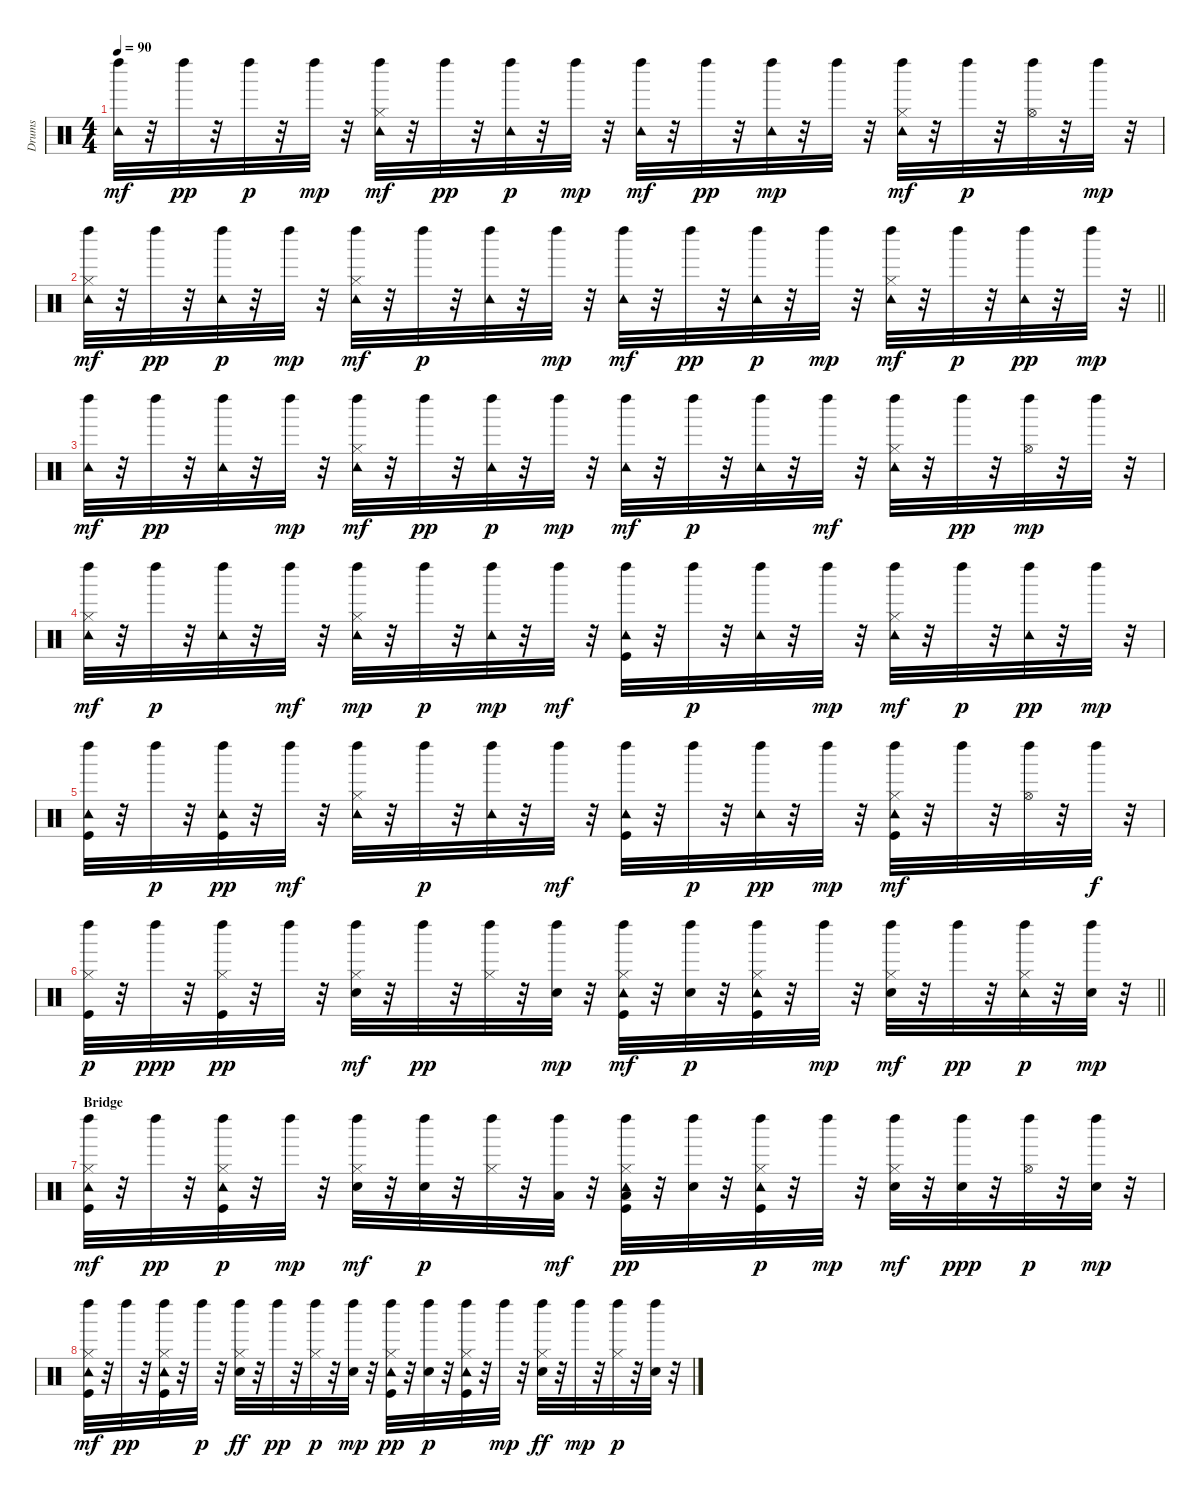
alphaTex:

\track ("Drums" "Drums") {instrument percussion}
\staff {score}
\articulation defaults
\ts (4 4)
\tempo 90
\clef neutral
\ks c
("Tambourine (hit)" "Left Maraca (hit)").32{dy mf} r.32 "Left Maraca (hit)".32{dy pp} r.32 "Left Maraca (hit)".32{dy p} r.32 "Left Maraca (hit)".32{dy mp} r.32 ("Hi-Hat (closed)" "Tambourine (hit)" "Left Maraca (hit)").32{dy mf} r.32 "Left Maraca (hit)".32{dy pp} r.32 ("Tambourine (hit)" "Left Maraca (hit)").32{dy p} r.32 "Left Maraca (hit)".32{dy mp} r.32 ("Tambourine (hit)" "Left Maraca (hit)").32{dy mf} r.32 "Left Maraca (hit)".32{dy pp} r.32 ("Tambourine (hit)" "Left Maraca (hit)").32{dy mp} r.32 "Left Maraca (hit)".32 r.32 ("Hi-Hat (closed)" "Tambourine (hit)" "Left Maraca (hit)").32{dy mf} r.32 "Left Maraca (hit)".32{dy p} r.32 ("Hi-Hat (open)" "Left Maraca (hit)").32 r.32 "Left Maraca (hit)".32{dy mp} r.32 |
\barLineRight lightlight
("Hi-Hat (closed)" "Tambourine (hit)" "Left Maraca (hit)").32{dy mf} r.32 "Left Maraca (hit)".32{dy pp} r.32 ("Tambourine (hit)" "Left Maraca (hit)").32{dy p} r.32 "Left Maraca (hit)".32{dy mp} r.32 ("Hi-Hat (closed)" "Tambourine (hit)" "Left Maraca (hit)").32{dy mf} r.32 "Left Maraca (hit)".32{dy p} r.32 ("Tambourine (hit)" "Left Maraca (hit)").32 r.32 "Left Maraca (hit)".32{dy mp} r.32 ("Tambourine (hit)" "Left Maraca (hit)").32{dy mf} r.32 "Left Maraca (hit)".32{dy pp} r.32 ("Tambourine (hit)" "Left Maraca (hit)").32{dy p} r.32 "Left Maraca (hit)".32{dy mp} r.32 ("Hi-Hat (closed)" "Tambourine (hit)" "Left Maraca (hit)").32{dy mf} r.32 "Left Maraca (hit)".32{dy p} r.32 ("Tambourine (hit)" "Left Maraca (hit)").32{dy pp} r.32 "Left Maraca (hit)".32{dy mp} r.32 |
("Tambourine (hit)" "Left Maraca (hit)").32{dy mf} r.32 "Left Maraca (hit)".32{dy pp} r.32 ("Tambourine (hit)" "Left Maraca (hit)").32 r.32 "Left Maraca (hit)".32{dy mp} r.32 ("Hi-Hat (closed)" "Tambourine (hit)" "Left Maraca (hit)").32{dy mf} r.32 "Left Maraca (hit)".32{dy pp} r.32 ("Tambourine (hit)" "Left Maraca (hit)").32{dy p} r.32 "Left Maraca (hit)".32{dy mp} r.32 ("Tambourine (hit)" "Left Maraca (hit)").32{dy mf} r.32 "Left Maraca (hit)".32{dy p} r.32 ("Tambourine (hit)" "Left Maraca (hit)").32 r.32 "Left Maraca (hit)".32{dy mf} r.32 ("Hi-Hat (closed)" "Tambourine (hit)" "Left Maraca (hit)").32 r.32 "Left Maraca (hit)".32{dy pp} r.32 ("Hi-Hat (open)" "Left Maraca (hit)").32{dy mp} r.32 "Left Maraca (hit)".32 r.32 |
("Hi-Hat (closed)" "Tambourine (hit)" "Left Maraca (hit)").32{dy mf} r.32 "Left Maraca (hit)".32{dy p} r.32 ("Tambourine (hit)" "Left Maraca (hit)").32 r.32 "Left Maraca (hit)".32{dy mf} r.32 ("Hi-Hat (closed)" "Tambourine (hit)" "Left Maraca (hit)").32{dy mp} r.32 "Left Maraca (hit)".32{dy p} r.32 ("Tambourine (hit)" "Left Maraca (hit)").32{dy mp} r.32 "Left Maraca (hit)".32{dy mf} r.32 ("Kick (hit)" "Tambourine (hit)" "Left Maraca (hit)").32 r.32 "Left Maraca (hit)".32{dy p} r.32 ("Tambourine (hit)" "Left Maraca (hit)").32 r.32 "Left Maraca (hit)".32{dy mp} r.32 ("Hi-Hat (closed)" "Tambourine (hit)" "Left Maraca (hit)").32{dy mf} r.32 "Left Maraca (hit)".32{dy p} r.32 ("Tambourine (hit)" "Left Maraca (hit)").32{dy pp} r.32 "Left Maraca (hit)".32{dy mp} r.32 |
("Kick (hit)" "Tambourine (hit)" "Left Maraca (hit)").32 r.32 "Left Maraca (hit)".32{dy p} r.32 ("Kick (hit)" "Tambourine (hit)" "Left Maraca (hit)").32{dy pp} r.32 "Left Maraca (hit)".32{dy mf} r.32 ("Hi-Hat (closed)" "Tambourine (hit)" "Left Maraca (hit)").32 r.32 "Left Maraca (hit)".32{dy p} r.32 ("Tambourine (hit)" "Left Maraca (hit)").32 r.32 "Left Maraca (hit)".32{dy mf} r.32 ("Kick (hit)" "Tambourine (hit)" "Left Maraca (hit)").32 r.32 "Left Maraca (hit)".32{dy p} r.32 ("Tambourine (hit)" "Left Maraca (hit)").32{dy pp} r.32 "Left Maraca (hit)".32{dy mp} r.32 ("Hi-Hat (closed)" "Kick (hit)" "Tambourine (hit)" "Left Maraca (hit)").32{dy mf} r.32 "Left Maraca (hit)".32 r.32 ("Hi-Hat (open)" "Left Maraca (hit)").32 r.32 "Left Maraca (hit)".32{dy f} r.32 |
\barLineRight lightlight
("Hi-Hat (closed)" "Kick (hit)" "Left Maraca (hit)").32{dy p} r.32 "Left Maraca (hit)".32{dy ppp} r.32 ("Hi-Hat (closed)" "Kick (hit)" "Left Maraca (hit)").32{dy pp} r.32 "Left Maraca (hit)".32 r.32 ("Hi-Hat (closed)" "Electric Snare (hit)" "Left Maraca (hit)").32{dy mf} r.32 "Left Maraca (hit)".32{dy pp} r.32 ("Hi-Hat (closed)" "Left Maraca (hit)").32 r.32 ("Electric Snare (hit)" "Left Maraca (hit)").32{dy mp} r.32 ("Hi-Hat (closed)" "Kick (hit)" "Tambourine (hit)" "Left Maraca (hit)").32{dy mf} r.32 ("Electric Snare (hit)" "Left Maraca (hit)").32{dy p} r.32 ("Hi-Hat (closed)" "Kick (hit)" "Tambourine (hit)" "Left Maraca (hit)").32 r.32 "Left Maraca (hit)".32{dy mp} r.32 ("Hi-Hat (closed)" "Electric Snare (hit)" "Left Maraca (hit)").32{dy mf} r.32 "Left Maraca (hit)".32{dy pp} r.32 ("Hi-Hat (closed)" "Tambourine (hit)" "Left Maraca (hit)").32{dy p} r.32 ("Electric Snare (hit)" "Left Maraca (hit)").32{dy mp} r.32 |
\section ("" "Bridge")
("Hi-Hat (closed)" "Kick (hit)" "Tambourine (hit)" "Left Maraca (hit)").32{dy mf} r.32 "Left Maraca (hit)".32{dy pp} r.32 ("Hi-Hat (closed)" "Kick (hit)" "Tambourine (hit)" "Left Maraca (hit)").32{dy p} r.32 "Left Maraca (hit)".32{dy mp} r.32 ("Hi-Hat (closed)" "Electric Snare (hit)" "Left Maraca (hit)").32{dy mf} r.32 ("Electric Snare (hit)" "Left Maraca (hit)").32{dy p} r.32 ("Hi-Hat (closed)" "Left Maraca (hit)").32 r.32 ("Left Maraca (hit)" "Low Tom (hit)").32{dy mf} r.32 ("Hi-Hat (closed)" "Kick (hit)" "Low Floor Tom (hit)" "Tambourine (hit)" "Left Maraca (hit)").32{dy pp} r.32 ("Electric Snare (hit)" "Left Maraca (hit)").32 r.32 ("Hi-Hat (closed)" "Kick (hit)" "Tambourine (hit)" "Left Maraca (hit)").32{dy p} r.32 "Left Maraca (hit)".32{dy mp} r.32 ("Hi-Hat (closed)" "Electric Snare (hit)" "Left Maraca (hit)").32{dy mf} r.32 ("Electric Snare (hit)" "Left Maraca (hit)").32{dy ppp} r.32 ("Hi-Hat (open)" "Left Maraca (hit)").32{dy p} r.32 ("Electric Snare (hit)" "Left Maraca (hit)").32{dy mp} r.32 |
("Hi-Hat (closed)" "Kick (hit)" "Tambourine (hit)" "Left Maraca (hit)").32{dy mf} r.32 "Left Maraca (hit)".32{dy pp} r.32 ("Hi-Hat (closed)" "Kick (hit)" "Tambourine (hit)" "Left Maraca (hit)").32 r.32 "Left Maraca (hit)".32{dy p} r.32 ("Hi-Hat (closed)" "Electric Snare (hit)" "Left Maraca (hit)").32{dy ff} r.32 "Left Maraca (hit)".32{dy pp} r.32 ("Hi-Hat (closed)" "Left Maraca (hit)").32{dy p} r.32 ("Electric Snare (hit)" "Left Maraca (hit)").32{dy mp} r.32 ("Hi-Hat (closed)" "Kick (hit)" "Tambourine (hit)" "Left Maraca (hit)").32{dy pp} r.32 ("Electric Snare (hit)" "Left Maraca (hit)").32{dy p} r.32 ("Hi-Hat (closed)" "Kick (hit)" "Tambourine (hit)" "Left Maraca (hit)").32 r.32 "Left Maraca (hit)".32{dy mp} r.32 ("Hi-Hat (closed)" "Electric Snare (hit)" "Left Maraca (hit)").32{dy ff} r.32 "Left Maraca (hit)".32{dy mp} r.32 ("Hi-Hat (closed)" "Left Maraca (hit)").32{dy p} r.32 ("Electric Snare (hit)" "Left Maraca (hit)").32 r.32
